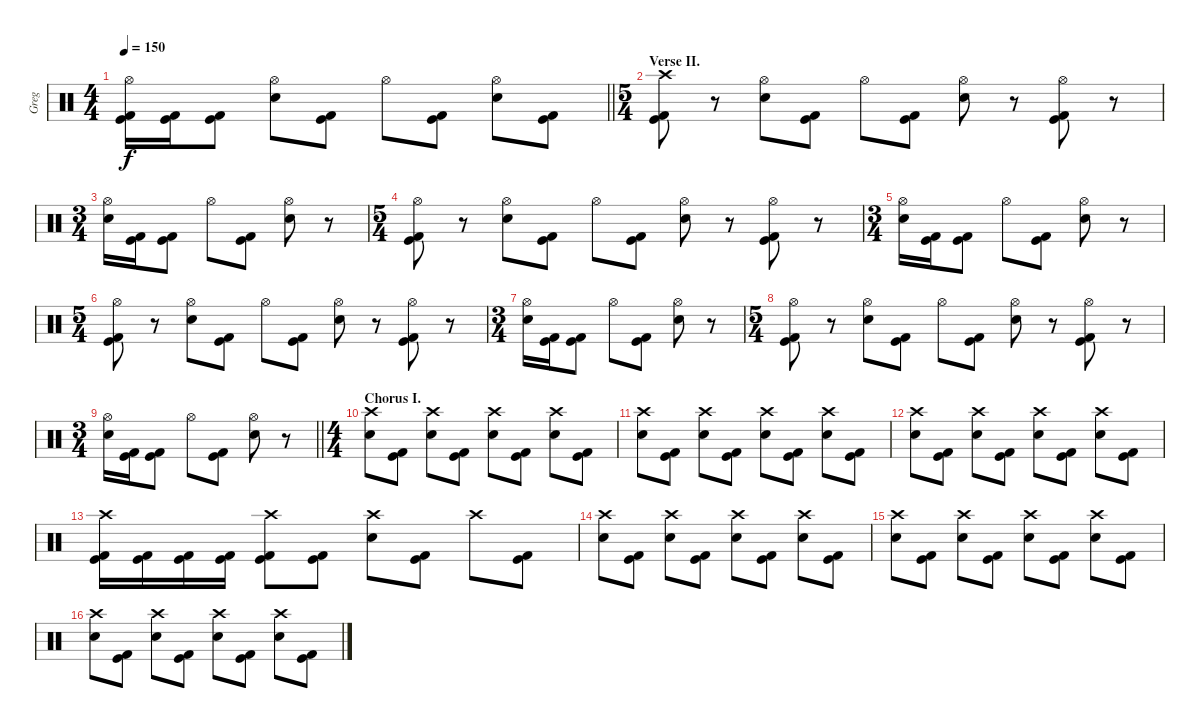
\track ("Greg" "Greg") {instrument percussion}
\staff {score}
\articulation defaults
\ts (4 4)
\tempo 150
\clef neutral
\barLineRight lightlight
\ks c
("Hi-Hat (open)" "Kick (hit)" "Kick (hit) 2").16{dy f} ("Kick (hit)" "Kick (hit) 2").16 ("Kick (hit)" "Kick (hit) 2").8 ("Hi-Hat (open)" "Snare (hit) 2").8 ("Kick (hit)" "Kick (hit) 2").8 "Hi-Hat (open)".8 ("Kick (hit)" "Kick (hit) 2").8 ("Hi-Hat (open)" "Snare (hit) 2").8 ("Kick (hit)" "Kick (hit) 2").8 |
\ts (5 4)
\section ("" "Verse II.")
("Crash high (hit)" "Kick (hit)" "Kick (hit) 2").8 r.8 ("Hi-Hat (open)" "Snare (hit) 2").8 ("Kick (hit)" "Kick (hit) 2").8 "Hi-Hat (open)".8 ("Kick (hit)" "Kick (hit) 2").8 ("Hi-Hat (open)" "Snare (hit) 2").8 r.8 ("Hi-Hat (open)" "Kick (hit)" "Kick (hit) 2").8 r.8 |
\ts (3 4)
("Hi-Hat (open)" "Snare (hit) 2").16 ("Kick (hit)" "Kick (hit) 2").16 ("Kick (hit)" "Kick (hit) 2").8 "Hi-Hat (open)".8 ("Kick (hit)" "Kick (hit) 2").8 ("Hi-Hat (open)" "Snare (hit) 2").8 r.8 |
\ts (5 4)
("Hi-Hat (open)" "Kick (hit)" "Kick (hit) 2").8 r.8 ("Hi-Hat (open)" "Snare (hit) 2").8 ("Kick (hit)" "Kick (hit) 2").8 "Hi-Hat (open)".8 ("Kick (hit)" "Kick (hit) 2").8 ("Hi-Hat (open)" "Snare (hit) 2").8 r.8 ("Hi-Hat (open)" "Kick (hit)" "Kick (hit) 2").8 r.8 |
\ts (3 4)
("Hi-Hat (open)" "Snare (hit) 2").16 ("Kick (hit)" "Kick (hit) 2").16 ("Kick (hit)" "Kick (hit) 2").8 "Hi-Hat (open)".8 ("Kick (hit)" "Kick (hit) 2").8 ("Hi-Hat (open)" "Snare (hit) 2").8 r.8 |
\ts (5 4)
("Hi-Hat (open)" "Kick (hit)" "Kick (hit) 2").8 r.8 ("Hi-Hat (open)" "Snare (hit) 2").8 ("Kick (hit)" "Kick (hit) 2").8 "Hi-Hat (open)".8 ("Kick (hit)" "Kick (hit) 2").8 ("Hi-Hat (open)" "Snare (hit) 2").8 r.8 ("Hi-Hat (open)" "Kick (hit)" "Kick (hit) 2").8 r.8 |
\ts (3 4)
("Hi-Hat (open)" "Snare (hit) 2").16 ("Kick (hit)" "Kick (hit) 2").16 ("Kick (hit)" "Kick (hit) 2").8 "Hi-Hat (open)".8 ("Kick (hit)" "Kick (hit) 2").8 ("Hi-Hat (open)" "Snare (hit) 2").8 r.8 |
\ts (5 4)
("Hi-Hat (open)" "Kick (hit)" "Kick (hit) 2").8 r.8 ("Hi-Hat (open)" "Snare (hit) 2").8 ("Kick (hit)" "Kick (hit) 2").8 "Hi-Hat (open)".8 ("Kick (hit)" "Kick (hit) 2").8 ("Hi-Hat (open)" "Snare (hit) 2").8 r.8 ("Hi-Hat (open)" "Kick (hit)" "Kick (hit) 2").8 r.8 |
\ts (3 4)
\barLineRight lightlight
("Hi-Hat (open)" "Snare (hit) 2").16 ("Kick (hit)" "Kick (hit) 2").16 ("Kick (hit)" "Kick (hit) 2").8 "Hi-Hat (open)".8 ("Kick (hit)" "Kick (hit) 2").8 ("Hi-Hat (open)" "Snare (hit) 2").8 r.8 |
\ts (4 4)
\section ("" "Chorus I.")
("Crash high (hit)" "Snare (hit) 2").8 ("Kick (hit)" "Kick (hit) 2").8 ("Crash high (hit)" "Snare (hit) 2").8 ("Kick (hit)" "Kick (hit) 2").8 ("Crash high (hit)" "Snare (hit) 2").8 ("Kick (hit)" "Kick (hit) 2").8 ("Crash high (hit)" "Snare (hit) 2").8 ("Kick (hit)" "Kick (hit) 2").8 |
("Crash high (hit)" "Snare (hit) 2").8 ("Kick (hit)" "Kick (hit) 2").8 ("Crash high (hit)" "Snare (hit) 2").8 ("Kick (hit)" "Kick (hit) 2").8 ("Crash high (hit)" "Snare (hit) 2").8 ("Kick (hit)" "Kick (hit) 2").8 ("Crash high (hit)" "Snare (hit) 2").8 ("Kick (hit)" "Kick (hit) 2").8 |
("Crash high (hit)" "Snare (hit) 2").8 ("Kick (hit)" "Kick (hit) 2").8 ("Crash high (hit)" "Snare (hit) 2").8 ("Kick (hit)" "Kick (hit) 2").8 ("Crash high (hit)" "Snare (hit) 2").8 ("Kick (hit)" "Kick (hit) 2").8 ("Crash high (hit)" "Snare (hit) 2").8 ("Kick (hit)" "Kick (hit) 2").8 |
("Crash high (hit)" "Kick (hit)" "Kick (hit) 2").16 ("Kick (hit)" "Kick (hit) 2").16 ("Kick (hit)" "Kick (hit) 2").16 ("Kick (hit)" "Kick (hit) 2").16 ("Crash high (hit)" "Kick (hit)" "Kick (hit) 2").8 ("Kick (hit)" "Kick (hit) 2").8 ("Crash high (hit)" "Snare (hit) 2").8 ("Kick (hit)" "Kick (hit) 2").8 "Crash high (hit)".8 ("Kick (hit)" "Kick (hit) 2").8 |
("Crash high (hit)" "Snare (hit) 2").8 ("Kick (hit)" "Kick (hit) 2").8 ("Crash high (hit)" "Snare (hit) 2").8 ("Kick (hit)" "Kick (hit) 2").8 ("Crash high (hit)" "Snare (hit) 2").8 ("Kick (hit)" "Kick (hit) 2").8 ("Crash high (hit)" "Snare (hit) 2").8 ("Kick (hit)" "Kick (hit) 2").8 |
("Crash high (hit)" "Snare (hit) 2").8 ("Kick (hit)" "Kick (hit) 2").8 ("Crash high (hit)" "Snare (hit) 2").8 ("Kick (hit)" "Kick (hit) 2").8 ("Crash high (hit)" "Snare (hit) 2").8 ("Kick (hit)" "Kick (hit) 2").8 ("Crash high (hit)" "Snare (hit) 2").8 ("Kick (hit)" "Kick (hit) 2").8 |
("Crash high (hit)" "Snare (hit) 2").8 ("Kick (hit)" "Kick (hit) 2").8 ("Crash high (hit)" "Snare (hit) 2").8 ("Kick (hit)" "Kick (hit) 2").8 ("Crash high (hit)" "Snare (hit) 2").8 ("Kick (hit)" "Kick (hit) 2").8 ("Crash high (hit)" "Snare (hit) 2").8 ("Kick (hit)" "Kick (hit) 2").8
